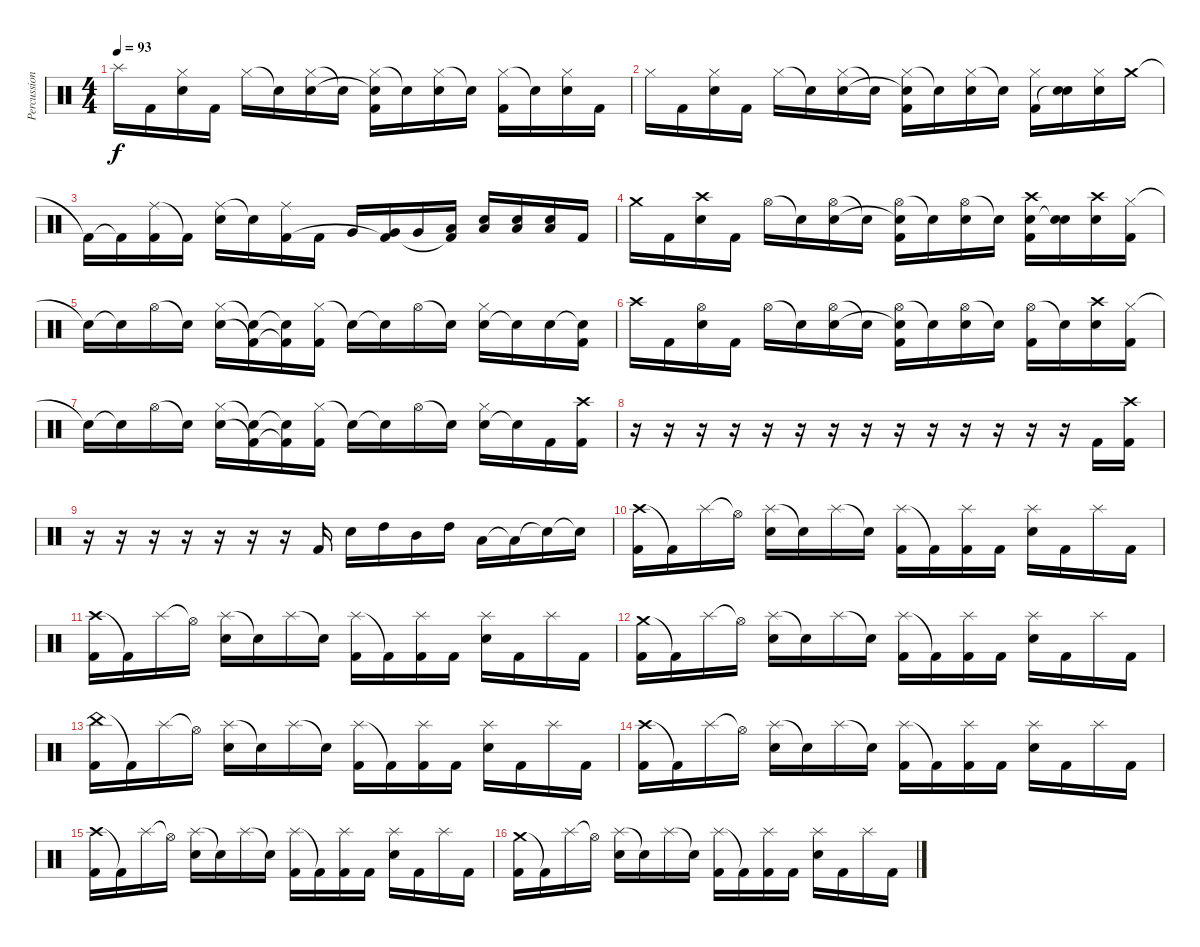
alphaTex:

\track ("Percussion" "Percussion") {instrument percussion}
\staff {score}
\articulation defaults
\ts (4 4)
\tempo 93
\clef neutral
\ks c "Splash (hit)".16{dy f} "Kick (hit) 2".16
("Hi-Hat (closed)" "Electric Snare (hit)").16 "Kick (hit) 2".16 "Hi-Hat (closed)".16 "Snare (hit)"{t}.16 ("Hi-Hat (closed)" "Electric Snare (hit)").16 "Snare (hit)"{t}.16 ("Hi-Hat (closed)" "Snare (hit)"{t} "Kick (hit) 2").16 "Snare (hit)"{t}.16 ("Hi-Hat (closed)" "Electric Snare (hit)").16 "Snare (hit)"{t}.16 ("Hi-Hat (closed)" "Kick (hit) 2").16 "Snare (hit)"{t}.16 ("Hi-Hat (closed)" "Electric Snare (hit)").16 "Kick (hit) 2".16 |
"Hi-Hat (closed)".16 "Kick (hit) 2".16 ("Hi-Hat (closed)" "Electric Snare (hit)").16 "Kick (hit) 2".16 "Hi-Hat (closed)".16 "Snare (hit)"{t}.16 ("Hi-Hat (closed)" "Electric Snare (hit)").16 "Snare (hit)"{t}.16 ("Hi-Hat (closed)" "Snare (hit)"{t} "Kick (hit) 2").16 "Snare (hit)"{t}.16 ("Hi-Hat (closed)" "Electric Snare (hit)").16 "Snare (hit)"{t}.16 ("Hi-Hat (closed)" "Kick (hit) 2").16 ("Electric Snare (hit)" "Snare (hit)"{t}).16 ("Hi-Hat (closed)" "Electric Snare (hit)").16 "Crash medium (hit)".16 |
"Kick (hit) 2"{t}.16 "Kick (hit) 2"{t}.16 ("Ride (middle)" "Kick (hit) 2").16 "Kick (hit) 2"{t}.16 ("Ride (middle)" "Electric Snare (hit)").16 "Snare (hit)"{t}.16 ("Ride (middle)" "Kick (hit) 2").16 "Kick (hit) 2".16 "Very Low Tom (hit)".16 ("Very Low Tom (hit)" "Kick (hit) 2"{t}).16 "Very Low Tom (hit)".16 ("Low Tom (hit)" "Kick (hit) 2"{t}).16 ("Low Tom (hit)" "Electric Snare (hit)").16 ("Low Tom (hit)" "Electric Snare (hit)").16 ("Low Tom (hit)" "Electric Snare (hit)").16 "Kick (hit) 2".16 |
"Crash medium (hit)".16 "Kick (hit) 2".16 ("Crash high (hit)" "Electric Snare (hit)").16 "Kick (hit) 2".16 "Hi-Hat (open)".16 "Snare (hit)"{t}.16 ("Hi-Hat (open)" "Electric Snare (hit)").16 "Snare (hit)"{t}.16 ("Hi-Hat (open)" "Snare (hit)"{t} "Kick (hit) 2").16 "Snare (hit)"{t}.16 ("Hi-Hat (open)" "Electric Snare (hit)").16 "Snare (hit)"{t}.16 ("Crash high (hit)" "Electric Snare (hit)" "Kick (hit) 2").16 ("Electric Snare (hit)" "Snare (hit)"{t}).16 ("Crash high (hit)" "Electric Snare (hit)").16 ("Hi-Hat (closed)" "Kick (hit) 2").16 |
"Snare (hit)"{t}.16 "Snare (hit)"{t}.16 "Hi-Hat (open)".16 "Snare (hit)"{t}.16 ("Hi-Hat (closed)" "Electric Snare (hit)").16 ("Snare (hit)"{t} "Kick (hit) 2"{t}).16 ("Snare (hit)"{t} "Kick (hit) 2"{t}).16 ("Hi-Hat (closed)" "Kick (hit) 2").16 "Snare (hit)"{t}.16 "Snare (hit)"{t}.16 "Hi-Hat (open)".16 "Snare (hit)"{t}.16 ("Electric Snare (hit)" "Hi-Hat (closed)").16 "Electric Snare (hit)"{t}.16 "Electric Snare (hit)".16 ("Snare (hit)"{t} "Kick (hit) 2").16 |
"Crash high (hit)".16 "Kick (hit) 2".16 ("Hi-Hat (open)" "Electric Snare (hit)").16 "Kick (hit) 2".16 "Hi-Hat (open)".16 "Snare (hit)"{t}.16 ("Hi-Hat (open)" "Electric Snare (hit)").16 "Snare (hit)"{t}.16 ("Hi-Hat (open)" "Snare (hit)"{t} "Kick (hit) 2").16 "Snare (hit)"{t}.16 ("Hi-Hat (open)" "Electric Snare (hit)").16 "Snare (hit)"{t}.16 ("Hi-Hat (open)" "Kick (hit) 2").16 "Snare (hit)"{t}.16 ("Crash high (hit)" "Electric Snare (hit)").16 ("Hi-Hat (closed)" "Kick (hit) 2").16 |
"Snare (hit)"{t}.16 "Snare (hit)"{t}.16 "Hi-Hat (open)".16 "Snare (hit)"{t}.16 ("Hi-Hat (closed)" "Electric Snare (hit)").16 ("Snare (hit)"{t} "Kick (hit) 2"{t}).16 ("Snare (hit)"{t} "Kick (hit) 2"{t}).16 ("Hi-Hat (closed)" "Kick (hit) 2").16 "Snare (hit)"{t}.16 "Snare (hit)"{t}.16 "Hi-Hat (open)".16 "Snare (hit)"{t}.16 ("Electric Snare (hit)" "Hi-Hat (closed)").16 "Electric Snare (hit)"{t}.16 "Kick (hit) 2".16 ("Crash high (hit)" "Kick (hit) 2").16 |
r.16 r.16 r.16 r.16 r.16 r.16 r.16 r.16 r.16 r.16 r.16 r.16 r.16 r.16 "Kick (hit) 2".16 ("Crash high (hit)" "Kick (hit) 2").16 |
r.16 r.16 r.16 r.16 r.16 r.16 r.16 "Kick (hit) 2".16 "Electric Snare (hit)".16 "High Tom (hit)".16 "Mid Tom (hit)".16 "High Tom (hit)".16 "Low Tom (hit)".16 "Low Tom (hit)"{t}.16 "Snare (hit)"{t}.16 "Snare (hit)"{t}.16 |
("Crash high (hit)" "Kick (hit) 2").16 "Kick (hit) 2"{t}.16 "Splash (hit)".16 "Hi-Hat (open)"{t}.16 ("Splash (hit)" "Electric Snare (hit)").16 "Snare (hit)"{t}.16 "Splash (hit)".16 "Snare (hit)"{t}.16 ("Splash (hit)" "Kick (hit) 2").16 "Kick (hit) 2"{t}.16 ("Splash (hit)" "Kick (hit) 2").16 "Kick (hit) 2".16 ("Electric Snare (hit)" "Splash (hit)").16 "Kick (hit) 2".16 "Splash (hit)".16 "Kick (hit) 2".16 |
("Crash high (hit)" "Kick (hit) 2").16 "Kick (hit) 2"{t}.16 "Splash (hit)".16 "Hi-Hat (open)"{t}.16 ("Splash (hit)" "Electric Snare (hit)").16 "Snare (hit)"{t}.16 "Splash (hit)".16 "Snare (hit)"{t}.16 ("Splash (hit)" "Kick (hit) 2").16 "Kick (hit) 2"{t}.16 ("Splash (hit)" "Kick (hit) 2").16 "Kick (hit) 2".16 ("Electric Snare (hit)" "Splash (hit)").16 "Kick (hit) 2".16 "Splash (hit)".16 "Kick (hit) 2".16 |
("Crash medium (hit)" "Kick (hit) 2").16 "Kick (hit) 2"{t}.16 "Splash (hit)".16 "Hi-Hat (open)"{t}.16 ("Splash (hit)" "Electric Snare (hit)").16 "Snare (hit)"{t}.16 "Splash (hit)".16 "Snare (hit)"{t}.16 ("Splash (hit)" "Kick (hit) 2").16 "Kick (hit) 2"{t}.16 ("Splash (hit)" "Kick (hit) 2").16 "Kick (hit) 2".16 ("Electric Snare (hit)" "Splash (hit)").16 "Kick (hit) 2".16 "Splash (hit)".16 "Kick (hit) 2".16 |
("China (hit)" "Kick (hit) 2").16 "Kick (hit) 2"{t}.16 "Splash (hit)".16 "Hi-Hat (open)"{t}.16 ("Splash (hit)" "Electric Snare (hit)").16 "Snare (hit)"{t}.16 "Splash (hit)".16 "Snare (hit)"{t}.16 ("Splash (hit)" "Kick (hit) 2").16 "Kick (hit) 2"{t}.16 ("Splash (hit)" "Kick (hit) 2").16 "Kick (hit) 2".16 ("Electric Snare (hit)" "Splash (hit)").16 "Kick (hit) 2".16 "Splash (hit)".16 "Kick (hit) 2".16 |
("Crash high (hit)" "Kick (hit) 2").16 "Kick (hit) 2"{t}.16 "Splash (hit)".16 "Hi-Hat (open)"{t}.16 ("Splash (hit)" "Electric Snare (hit)").16 "Snare (hit)"{t}.16 "Splash (hit)".16 "Snare (hit)"{t}.16 ("Splash (hit)" "Kick (hit) 2").16 "Kick (hit) 2"{t}.16 ("Splash (hit)" "Kick (hit) 2").16 "Kick (hit) 2".16 ("Electric Snare (hit)" "Splash (hit)").16 "Kick (hit) 2".16 "Splash (hit)".16 "Kick (hit) 2".16 |
("Crash high (hit)" "Kick (hit) 2").16 "Kick (hit) 2"{t}.16 "Splash (hit)".16 "Hi-Hat (open)"{t}.16 ("Splash (hit)" "Electric Snare (hit)").16 "Snare (hit)"{t}.16 "Splash (hit)".16 "Snare (hit)"{t}.16 ("Splash (hit)" "Kick (hit) 2").16 "Kick (hit) 2"{t}.16 ("Splash (hit)" "Kick (hit) 2").16 "Kick (hit) 2".16 ("Electric Snare (hit)" "Splash (hit)").16 "Kick (hit) 2".16 "Splash (hit)".16 "Kick (hit) 2".16 |
("Crash medium (hit)" "Kick (hit) 2").16 "Kick (hit) 2"{t}.16 "Splash (hit)".16 "Hi-Hat (open)"{t}.16 ("Splash (hit)" "Electric Snare (hit)").16 "Snare (hit)"{t}.16 "Splash (hit)".16 "Snare (hit)"{t}.16 ("Splash (hit)" "Kick (hit) 2").16 "Kick (hit) 2"{t}.16 ("Splash (hit)" "Kick (hit) 2").16 "Kick (hit) 2".16 ("Electric Snare (hit)" "Splash (hit)").16 "Kick (hit) 2".16 "Splash (hit)".16 "Kick (hit) 2".16
